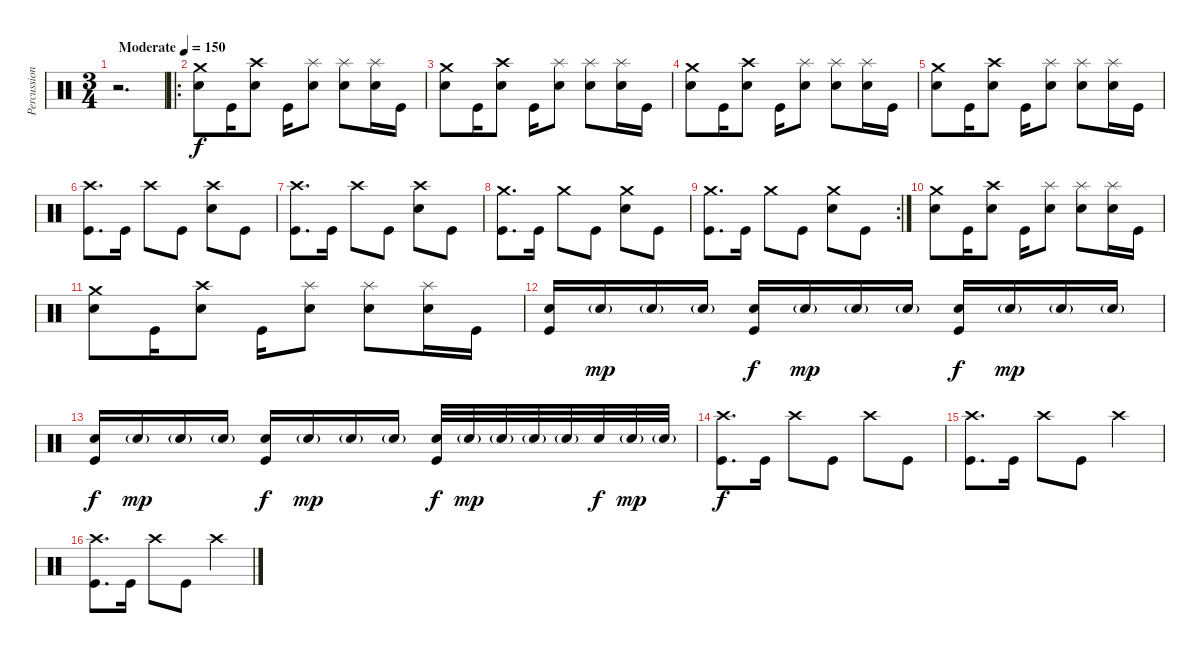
\track ("Percussion" "Percussion") {instrument percussion}
\staff {score}
\articulation defaults
\ts (3 4)
\tempo (150 "Moderate")
\clef neutral
\ks c
r.2{d dy f} |
\ro
("Snare (hit) 2" "Crash medium (hit)").8 "Kick (hit)".16 ("Snare (hit) 2" "Crash high (hit)").8 "Kick (hit)".16 ("Snare (hit) 2" "Splash (hit)").8 ("Snare (hit) 2" "Splash (hit)").8 ("Snare (hit) 2" "Splash (hit)").16 "Kick (hit)".16 |
("Snare (hit) 2" "Crash medium (hit)").8 "Kick (hit)".16 ("Snare (hit) 2" "Crash high (hit)").8 "Kick (hit)".16 ("Snare (hit) 2" "Splash (hit)").8 ("Snare (hit) 2" "Splash (hit)").8 ("Snare (hit) 2" "Splash (hit)").16 "Kick (hit)".16 |
("Snare (hit) 2" "Crash medium (hit)").8 "Kick (hit)".16 ("Snare (hit) 2" "Crash high (hit)").8 "Kick (hit)".16 ("Snare (hit) 2" "Splash (hit)").8 ("Snare (hit) 2" "Splash (hit)").8 ("Snare (hit) 2" "Splash (hit)").16 "Kick (hit)".16 |
("Snare (hit) 2" "Crash medium (hit)").8 "Kick (hit)".16 ("Snare (hit) 2" "Crash high (hit)").8 "Kick (hit)".16 ("Snare (hit) 2" "Splash (hit)").8 ("Snare (hit) 2" "Splash (hit)").8 ("Snare (hit) 2" "Splash (hit)").16 "Kick (hit)".16 |
("Crash high (hit)" "Kick (hit)").8{d} "Kick (hit)".16 "Crash high (hit)".8 "Kick (hit)".8 ("Crash high (hit)" "Snare (hit) 2").8 "Kick (hit)".8 |
("Crash high (hit)" "Kick (hit)").8{d} "Kick (hit)".16 "Crash high (hit)".8 "Kick (hit)".8 ("Crash high (hit)" "Snare (hit) 2").8 "Kick (hit)".8 |
("Crash medium (hit)" "Kick (hit)").8{d} "Kick (hit)".16 "Crash medium (hit)".8 "Kick (hit)".8 ("Crash medium (hit)" "Snare (hit) 2").8 "Kick (hit)".8 |
\rc 2
("Crash medium (hit)" "Kick (hit)").8{d} "Kick (hit)".16 "Crash medium (hit)".8 "Kick (hit)".8 ("Crash medium (hit)" "Snare (hit) 2").8 "Kick (hit)".8 |
("Snare (hit) 2" "Crash medium (hit)").8 "Kick (hit)".16 ("Snare (hit) 2" "Crash high (hit)").8 "Kick (hit)".16 ("Snare (hit) 2" "Splash (hit)").8 ("Snare (hit) 2" "Splash (hit)").8 ("Snare (hit) 2" "Splash (hit)").16 "Kick (hit)".16 |
("Snare (hit) 2" "Crash medium (hit)").8 "Kick (hit)".16 ("Snare (hit) 2" "Crash high (hit)").8 "Kick (hit)".16 ("Snare (hit) 2" "Splash (hit)").8 ("Snare (hit) 2" "Splash (hit)").8 ("Snare (hit) 2" "Splash (hit)").16 "Kick (hit)".16 |
("Snare (hit) 2" "Kick (hit)").16 "Snare (hit) 2"{g}.16{dy mp} "Snare (hit) 2"{g}.16 "Snare (hit) 2"{g}.16 ("Snare (hit) 2" "Kick (hit)").16{dy f} "Snare (hit) 2"{g}.16{dy mp} "Snare (hit) 2"{g}.16 "Snare (hit) 2"{g}.16 ("Snare (hit) 2" "Kick (hit)").16{dy f} "Snare (hit) 2"{g}.16{dy mp} "Snare (hit) 2"{g}.16 "Snare (hit) 2"{g}.16 |
("Snare (hit) 2" "Kick (hit)").16{dy f} "Snare (hit) 2"{g}.16{dy mp} "Snare (hit) 2"{g}.16 "Snare (hit) 2"{g}.16 ("Snare (hit) 2" "Kick (hit)").16{dy f} "Snare (hit) 2"{g}.16{dy mp} "Snare (hit) 2"{g}.16 "Snare (hit) 2"{g}.16 ("Snare (hit) 2" "Kick (hit)").32{dy f} "Snare (hit) 2"{g}.32{dy mp} "Snare (hit) 2"{g}.32 "Snare (hit) 2"{g}.32 "Snare (hit) 2"{g}.32 "Snare (hit) 2".32{dy f} "Snare (hit) 2"{g}.32{dy mp} "Snare (hit) 2"{g}.32 |
("Crash high (hit)" "Kick (hit)").8{d dy f} "Kick (hit)".16 "Crash high (hit)".8 "Kick (hit)".8 "Crash high (hit)".8 "Kick (hit)".8 |
("Crash high (hit)" "Kick (hit)").8{d} "Kick (hit)".16 "Crash high (hit)".8 "Kick (hit)".8 "Crash high (hit)".4 |
("Crash high (hit)" "Kick (hit)").8{d} "Kick (hit)".16 "Crash high (hit)".8 "Kick (hit)".8 "Crash high (hit)".4
